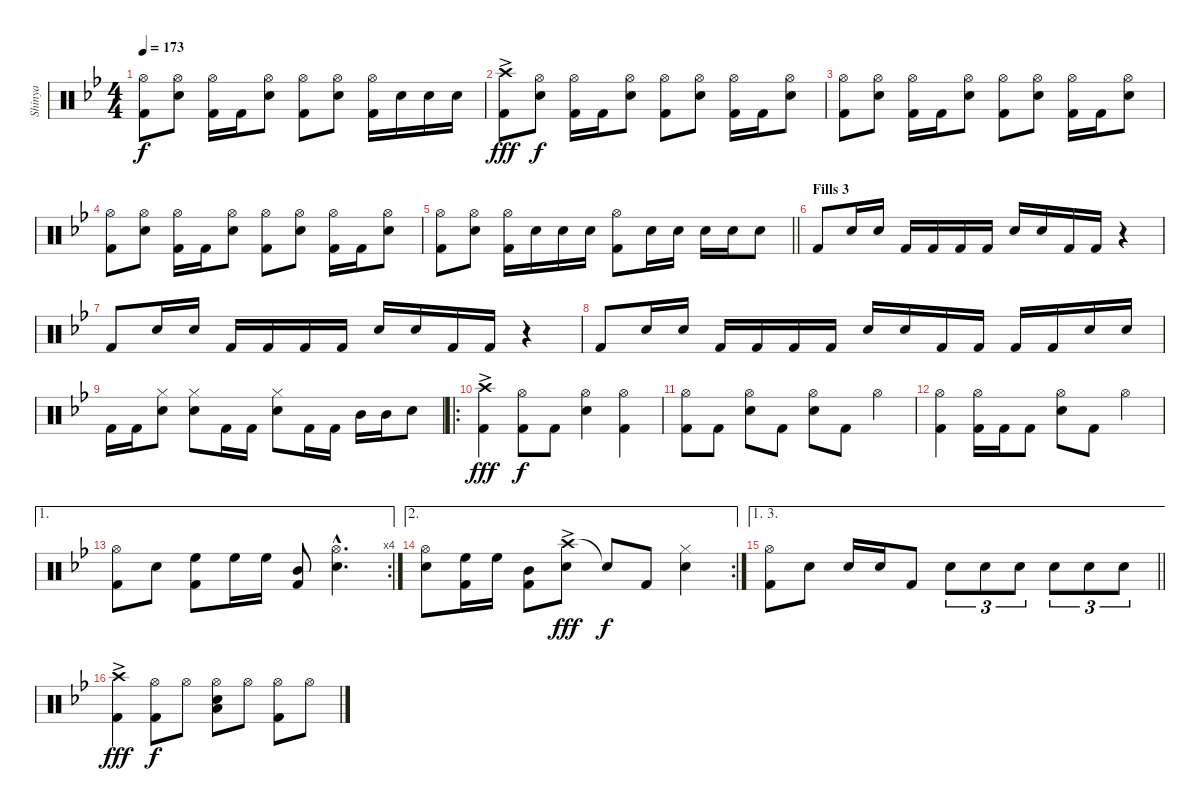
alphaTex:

\track ("Shinya" "Shinya") {instrument percussion}
\staff {score}
\articulation defaults
\ts (4 4)
\tempo 173
\clef neutral
\ks bb
("Hi-Hat (open)" "Kick (hit) 2").8{dy f} ("Hi-Hat (open)" "Snare (hit) 2").8 ("Hi-Hat (open)" "Kick (hit) 2").16 "Kick (hit) 2".16 ("Hi-Hat (open)" "Snare (hit) 2").8 ("Hi-Hat (open)" "Kick (hit) 2").8 ("Hi-Hat (open)" "Snare (hit) 2").8 ("Hi-Hat (open)" "Kick (hit) 2").16 "Snare (hit) 2".16 "Snare (hit) 2".16 "Snare (hit) 2".16 |
("Crash high (hit)"{ac} "Kick (hit) 2").8{dy fff} ("Hi-Hat (open)" "Snare (hit) 2").8{dy f} ("Hi-Hat (open)" "Kick (hit) 2").16 "Kick (hit) 2".16 ("Hi-Hat (open)" "Snare (hit) 2").8 ("Hi-Hat (open)" "Kick (hit) 2").8 ("Hi-Hat (open)" "Snare (hit) 2").8 ("Hi-Hat (open)" "Kick (hit) 2").16 "Kick (hit) 2".16 ("Hi-Hat (open)" "Snare (hit) 2").8 |
("Hi-Hat (open)" "Kick (hit) 2").8 ("Hi-Hat (open)" "Snare (hit) 2").8 ("Hi-Hat (open)" "Kick (hit) 2").16 "Kick (hit) 2".16 ("Hi-Hat (open)" "Snare (hit) 2").8 ("Hi-Hat (open)" "Kick (hit) 2").8 ("Hi-Hat (open)" "Snare (hit) 2").8 ("Hi-Hat (open)" "Kick (hit) 2").16 "Kick (hit) 2".16 ("Hi-Hat (open)" "Snare (hit) 2").8 |
("Hi-Hat (open)" "Kick (hit) 2").8 ("Hi-Hat (open)" "Snare (hit) 2").8 ("Hi-Hat (open)" "Kick (hit) 2").16 "Kick (hit) 2".16 ("Hi-Hat (open)" "Snare (hit) 2").8 ("Hi-Hat (open)" "Kick (hit) 2").8 ("Hi-Hat (open)" "Snare (hit) 2").8 ("Hi-Hat (open)" "Kick (hit) 2").16 "Kick (hit) 2".16 ("Hi-Hat (open)" "Snare (hit) 2").8 |
\barLineRight lightlight
("Hi-Hat (open)" "Kick (hit) 2").8 ("Hi-Hat (open)" "Snare (hit) 2").8 ("Hi-Hat (open)" "Kick (hit) 2").16 "Snare (hit) 2".16 "Snare (hit) 2".16 "Snare (hit) 2".16 ("Hi-Hat (open)" "Kick (hit) 2").8 "Snare (hit) 2".16 "Snare (hit) 2".16 "Snare (hit) 2".16 "Snare (hit) 2".16 "Snare (hit) 2".8 |
\section ("" "Fills 3")
"Kick (hit) 2".8 "Snare (hit) 2".16 "Snare (hit) 2".16 "Kick (hit) 2".16 "Kick (hit) 2".16 "Kick (hit) 2".16 "Kick (hit) 2".16 "Snare (hit) 2".16 "Snare (hit) 2".16 "Kick (hit) 2".16 "Kick (hit) 2".16 r.4 |
"Kick (hit) 2".8 "Snare (hit) 2".16 "Snare (hit) 2".16 "Kick (hit) 2".16 "Kick (hit) 2".16 "Kick (hit) 2".16 "Kick (hit) 2".16 "Snare (hit) 2".16 "Snare (hit) 2".16 "Kick (hit) 2".16 "Kick (hit) 2".16 r.4 |
"Kick (hit) 2".8 "Snare (hit) 2".16 "Snare (hit) 2".16 "Kick (hit) 2".16 "Kick (hit) 2".16 "Kick (hit) 2".16 "Kick (hit) 2".16 "Snare (hit) 2".16 "Snare (hit) 2".16 "Kick (hit) 2".16 "Kick (hit) 2".16 "Kick (hit) 2".16 "Kick (hit) 2".16 "Snare (hit) 2".16 "Snare (hit) 2".16 |
"Kick (hit) 2".16 "Kick (hit) 2".16 ("Hi-Hat (closed)" "Snare (hit) 2").8 ("Hi-Hat (closed)" "Snare (hit) 2").8 "Kick (hit) 2".16 "Kick (hit) 2".16 ("Hi-Hat (closed)" "Snare (hit) 2").8 "Kick (hit) 2".16 "Kick (hit) 2".16 "Mid Tom (hit)".16 "Mid Tom (hit)".16 "Snare (hit) 2".8 |
\ro
("Crash high (hit)"{ac} "Kick (hit) 2").4{dy fff} ("Hi-Hat (open)" "Kick (hit) 2").8{dy f} "Kick (hit) 2".8 ("Hi-Hat (open)" "Snare (hit) 2").4 ("Hi-Hat (open)" "Kick (hit) 2").4 |
("Hi-Hat (open)" "Kick (hit) 2").8 "Kick (hit) 2".8 ("Hi-Hat (open)" "Snare (hit) 2").8 "Kick (hit) 2".8 ("Hi-Hat (open)" "Snare (hit) 2").8 "Kick (hit) 2".8 "Hi-Hat (open)".4 |
("Hi-Hat (open)" "Kick (hit) 2").4 ("Hi-Hat (open)" "Kick (hit) 2").16 "Kick (hit) 2".16 "Kick (hit) 2".8 ("Hi-Hat (open)" "Snare (hit) 2").8 "Kick (hit) 2".8 "Hi-Hat (open)".4 |
\ae 1
\rc 4
("Hi-Hat (open)" "Kick (hit) 2").8 "Snare (hit) 2".8 ("High Floor Tom (hit)" "Kick (hit) 2").8 "High Floor Tom (hit)".16 "High Floor Tom (hit)".16 ("Mid Tom (hit)" "Kick (hit) 2").8 ("Hi-Hat (open)"{hac} "Snare (hit) 2"{hac}).4{d} |
\ae 2
\rc 2
("Hi-Hat (open)" "Snare (hit) 2").8 ("High Floor Tom (hit)" "Kick (hit) 2").16 "High Floor Tom (hit)".16 ("Mid Tom (hit)" "Kick (hit) 2").8 ("Crash high (hit)"{ac} "Snare (hit) 2").8{dy fff} "Snare (hit)"{t}.8{dy f} "Kick (hit) 2".8 ("Hi-Hat (closed)" "Snare (hit) 2").4 |
\ae (1 3)
\barLineRight lightlight
("Hi-Hat (open)" "Kick (hit) 2").8 "Snare (hit) 2".8 "Snare (hit) 2".16 "Snare (hit) 2".16 "Kick (hit) 2".8 "Snare (hit) 2".8{tu (3 2)} "Snare (hit) 2".8{tu (3 2)} "Snare (hit) 2".8{tu (3 2)} "Snare (hit) 2".8{tu (3 2)} "Snare (hit) 2".8{tu (3 2)} "Snare (hit) 2".8{tu (3 2)} |
("Crash high (hit)"{ac} "Kick (hit) 2").4{dy fff} ("Hi-Hat (open)" "Kick (hit) 2").8{dy f} "Hi-Hat (open)".8 ("Hi-Hat (open)" "Snare (hit) 2" "Low Floor Tom (hit)").8 "Hi-Hat (open)".8 ("Hi-Hat (open)" "Kick (hit) 2").8 "Hi-Hat (open)".8
